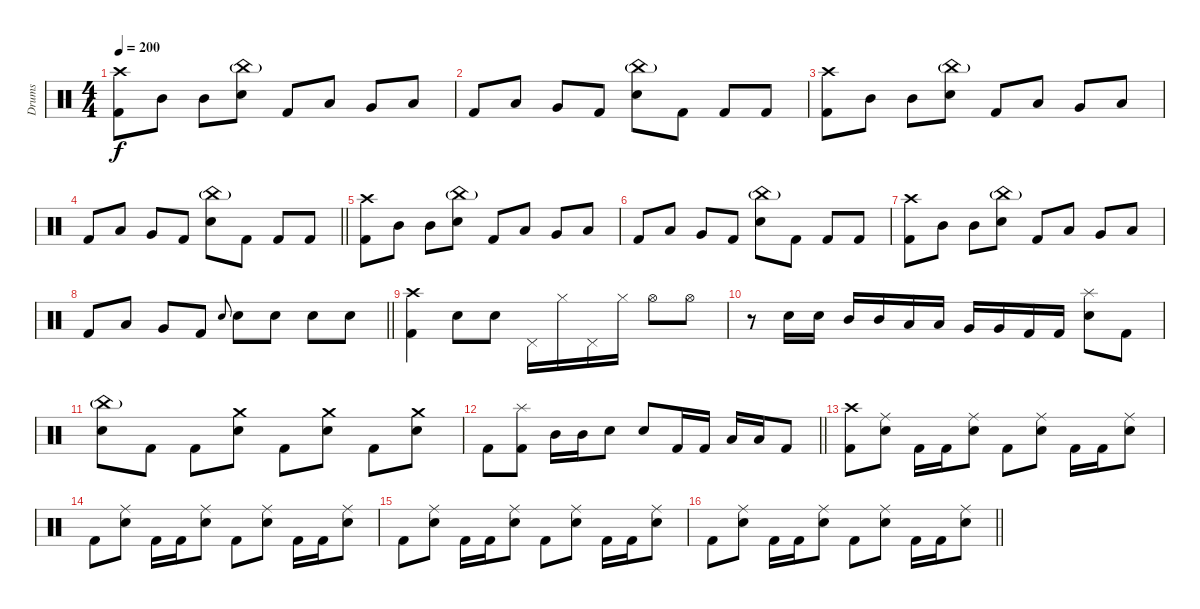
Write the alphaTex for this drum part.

\track ("Drums" "Drums") {instrument percussion}
\staff {score}
\articulation defaults
\ts (4 4)
\tempo 200
\clef neutral
\ks c
("Crash high (hit)" "Kick (hit) 2").8{dy f} "Mid Tom (hit)".8 "Mid Tom (hit)".8 ("China (hit)"{g} "Electric Snare (hit)").8 "Kick (hit) 2".8 "Low Tom (hit)".8 "Very Low Tom (hit)".8 "Low Tom (hit)".8 |
"Kick (hit) 2".8 "Low Tom (hit)".8 "Very Low Tom (hit)".8 "Kick (hit) 2".8 ("China (hit)"{g} "Electric Snare (hit)").8 "Kick (hit) 2".8 "Kick (hit) 2".8 "Kick (hit) 2".8 |
("Crash high (hit)" "Kick (hit) 2").8 "Mid Tom (hit)".8 "Mid Tom (hit)".8 ("China (hit)"{g} "Electric Snare (hit)").8 "Kick (hit) 2".8 "Low Tom (hit)".8 "Very Low Tom (hit)".8 "Low Tom (hit)".8 |
\barLineRight lightlight "Kick (hit) 2".8 "Low Tom (hit)".8 "Very Low Tom (hit)".8 "Kick (hit) 2".8
("China (hit)"{g} "Electric Snare (hit)").8 "Kick (hit) 2".8 "Kick (hit) 2".8 "Kick (hit) 2".8 |
("Crash high (hit)" "Kick (hit) 2").8 "Mid Tom (hit)".8 "Mid Tom (hit)".8 ("China (hit)"{g} "Electric Snare (hit)").8 "Kick (hit) 2".8 "Low Tom (hit)".8 "Very Low Tom (hit)".8 "Low Tom (hit)".8 |
"Kick (hit) 2".8 "Low Tom (hit)".8 "Very Low Tom (hit)".8 "Kick (hit) 2".8 ("China (hit)"{g} "Electric Snare (hit)").8 "Kick (hit) 2".8 "Kick (hit) 2".8 "Kick (hit) 2".8 |
("Crash high (hit)" "Kick (hit) 2").8 "Mid Tom (hit)".8 "Mid Tom (hit)".8 ("China (hit)"{g} "Electric Snare (hit)").8 "Kick (hit) 2".8 "Low Tom (hit)".8 "Very Low Tom (hit)".8 "Low Tom (hit)".8 |
\barLineRight lightlight "Kick (hit) 2".8 "Low Tom (hit)".8 "Very Low Tom (hit)".8 "Kick (hit) 2".8 "Electric Snare (hit)".8{gr onbeat} "Electric Snare (hit)".8 "Electric Snare (hit)".8 "Electric Snare (hit)".8 "Electric Snare (hit)".8
|
("Crash high (hit)" "Kick (hit) 2").4 "Electric Snare (hit)".8 "Electric Snare (hit)".8 "Pedal Hi-Hat (hit)".16 "Hi-Hat (closed)".16 "Pedal Hi-Hat (hit)".16 "Hi-Hat (closed)".16 "Hi-Hat (open)".8 "Hi-Hat (open)".8 |
r.8 "Electric Snare (hit)".16 "Electric Snare (hit)".16 "Mid Tom (hit)".16 "Mid Tom (hit)".16 "Low Tom (hit)".16 "Low Tom (hit)".16 "Very Low Tom (hit)".16 "Very Low Tom (hit)".16 "Kick (hit) 2".16 "Kick (hit) 2".16 ("Splash (hit)" "Electric Snare (hit)").8 "Kick (hit) 2".8 |
("China (hit)"{g} "Electric Snare (hit)").8 "Kick (hit) 2".8 "Kick (hit) 2".8 ("Crash medium (hit)" "Electric Snare (hit)").8 "Kick (hit) 2".8 ("Crash medium (hit)" "Electric Snare (hit)").8 "Kick (hit) 2".8 ("Crash medium (hit)" "Electric Snare (hit)").8 |
\barLineRight lightlight "Kick (hit) 2".8
("Splash (hit)" "Kick (hit) 2").8 "Mid Tom (hit)".16 "Mid Tom (hit)".16 "Electric Snare (hit)".8 "Electric Snare (hit)".8 "Kick (hit) 2".16 "Kick (hit) 2".16 "Low Tom (hit)".16 "Low Tom (hit)".16 "Kick (hit) 2".8 |
("Crash high (hit)" "Kick (hit) 2").8 ("Ride (middle)" "Electric Snare (hit)").8 "Kick (hit) 2".16 "Kick (hit) 2".16 ("Ride (middle)" "Electric Snare (hit)").8 "Kick (hit) 2".8 ("Ride (middle)" "Electric Snare (hit)").8 "Kick (hit) 2".16 "Kick (hit) 2".16 ("Ride (middle)" "Electric Snare (hit)").8 |
"Kick (hit) 2".8 ("Ride (middle)" "Electric Snare (hit)").8 "Kick (hit) 2".16 "Kick (hit) 2".16 ("Ride (middle)" "Electric Snare (hit)").8 "Kick (hit) 2".8 ("Ride (middle)" "Electric Snare (hit)").8 "Kick (hit) 2".16 "Kick (hit) 2".16 ("Ride (middle)" "Electric Snare (hit)").8 |
"Kick (hit) 2".8 ("Ride (middle)" "Electric Snare (hit)").8 "Kick (hit) 2".16 "Kick (hit) 2".16 ("Ride (middle)" "Electric Snare (hit)").8 "Kick (hit) 2".8 ("Ride (middle)" "Electric Snare (hit)").8 "Kick (hit) 2".16 "Kick (hit) 2".16 ("Ride (middle)" "Electric Snare (hit)").8 |
\barLineRight lightlight "Kick (hit) 2".8
("Ride (middle)" "Electric Snare (hit)").8 "Kick (hit) 2".16 "Kick (hit) 2".16 ("Ride (middle)" "Electric Snare (hit)").8 "Kick (hit) 2".8 ("Ride (middle)" "Electric Snare (hit)").8 "Kick (hit) 2".16 "Kick (hit) 2".16 ("Ride (middle)" "Electric Snare (hit)").8
